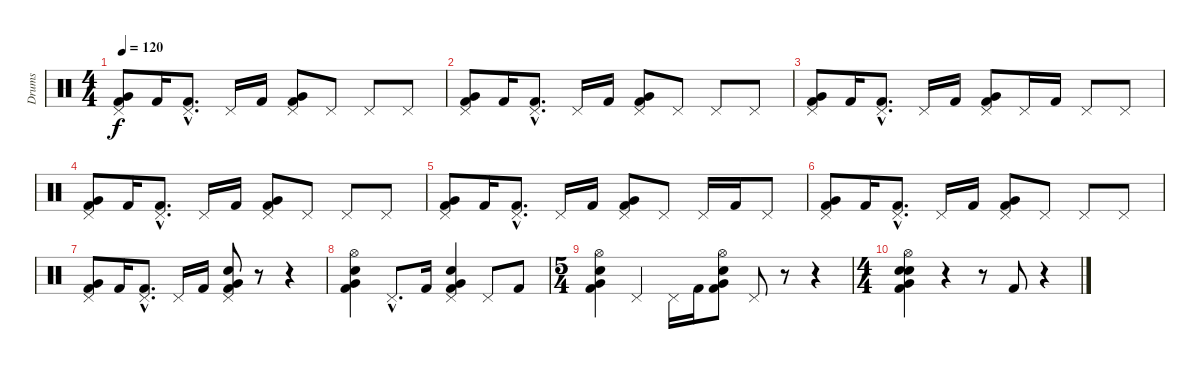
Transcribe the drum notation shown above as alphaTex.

\track ("Drums" "Drums") {instrument percussion}
\staff {score}
\articulation defaults
\ts (4 4)
\tempo 120
\clef neutral
\ks c
("Pedal Hi-Hat (hit)" "Very Low Tom (hit)" "Kick (hit) 2").8{dy f} "Kick (hit) 2".16 ("Pedal Hi-Hat (hit)"{hac} "Kick (hit) 2"{hac}).8{d} "Pedal Hi-Hat (hit)".16 "Kick (hit) 2".16 ("Pedal Hi-Hat (hit)" "Very Low Tom (hit)" "Kick (hit) 2").8 "Pedal Hi-Hat (hit)".8 "Pedal Hi-Hat (hit)".8 "Pedal Hi-Hat (hit)".8 |
("Pedal Hi-Hat (hit)" "Very Low Tom (hit)" "Kick (hit) 2").8 "Kick (hit) 2".16 ("Pedal Hi-Hat (hit)"{hac} "Kick (hit) 2"{hac}).8{d} "Pedal Hi-Hat (hit)".16 "Kick (hit) 2".16 ("Pedal Hi-Hat (hit)" "Very Low Tom (hit)" "Kick (hit) 2").8 "Pedal Hi-Hat (hit)".8 "Pedal Hi-Hat (hit)".8 "Pedal Hi-Hat (hit)".8 |
("Pedal Hi-Hat (hit)" "Very Low Tom (hit)" "Kick (hit) 2").8 "Kick (hit) 2".16 ("Pedal Hi-Hat (hit)"{hac} "Kick (hit) 2"{hac}).8{d} "Pedal Hi-Hat (hit)".16 "Kick (hit) 2".16 ("Pedal Hi-Hat (hit)" "Very Low Tom (hit)" "Kick (hit) 2").8 "Pedal Hi-Hat (hit)".16 "Kick (hit) 2".16 "Pedal Hi-Hat (hit)".8 "Pedal Hi-Hat (hit)".8 |
("Pedal Hi-Hat (hit)" "Very Low Tom (hit)" "Kick (hit) 2").8 "Kick (hit) 2".16 ("Pedal Hi-Hat (hit)"{hac} "Kick (hit) 2"{hac}).8{d} "Pedal Hi-Hat (hit)".16 "Kick (hit) 2".16 ("Pedal Hi-Hat (hit)" "Very Low Tom (hit)" "Kick (hit) 2").8 "Pedal Hi-Hat (hit)".8 "Pedal Hi-Hat (hit)".8 "Pedal Hi-Hat (hit)".8 |
("Pedal Hi-Hat (hit)" "Very Low Tom (hit)" "Kick (hit) 2").8 "Kick (hit) 2".16 ("Pedal Hi-Hat (hit)"{hac} "Kick (hit) 2"{hac}).8{d} "Pedal Hi-Hat (hit)".16 "Kick (hit) 2".16 ("Pedal Hi-Hat (hit)" "Very Low Tom (hit)" "Kick (hit) 2").8 "Pedal Hi-Hat (hit)".8 "Pedal Hi-Hat (hit)".16 "Kick (hit) 2".16 "Pedal Hi-Hat (hit)".8 |
("Pedal Hi-Hat (hit)" "Very Low Tom (hit)" "Kick (hit) 2").8 "Kick (hit) 2".16 ("Pedal Hi-Hat (hit)"{hac} "Kick (hit) 2"{hac}).8{d} "Pedal Hi-Hat (hit)".16 "Kick (hit) 2".16 ("Pedal Hi-Hat (hit)" "Very Low Tom (hit)" "Kick (hit) 2").8 "Pedal Hi-Hat (hit)".8 "Pedal Hi-Hat (hit)".8 "Pedal Hi-Hat (hit)".8 |
("Pedal Hi-Hat (hit)" "Very Low Tom (hit)" "Kick (hit) 2").8 "Kick (hit) 2".16 ("Pedal Hi-Hat (hit)"{hac} "Kick (hit) 2"{hac}).8{d} "Pedal Hi-Hat (hit)".16 "Kick (hit) 2".16 ("Pedal Hi-Hat (hit)" "Electric Snare (hit)" "Very Low Tom (hit)" "Kick (hit) 2").8 r.8 r.4 |
("Hi-Hat (open)" "Very Low Tom (hit)" "Electric Snare (hit)" "Kick (hit) 2").4 "Pedal Hi-Hat (hit)"{hac}.8{d} "Kick (hit) 2".16 ("Pedal Hi-Hat (hit)" "Very Low Tom (hit)" "Electric Snare (hit)" "Kick (hit) 2").4 "Pedal Hi-Hat (hit)".8 "Kick (hit) 2".8 |
\ts (5 4)
("Hi-Hat (open)" "Very Low Tom (hit)" "Electric Snare (hit)" "Kick (hit) 2").4 "Pedal Hi-Hat (hit)".4 "Pedal Hi-Hat (hit)".16 "Kick (hit) 2".16 ("Hi-Hat (open)" "Very Low Tom (hit)" "Electric Snare (hit)" "Kick (hit) 2").8 "Pedal Hi-Hat (hit)".8 r.8 r.4 |
\ts (4 4)
("Hi-Hat (open)" "Very Low Tom (hit)" "Electric Snare (hit)" "Electric Snare (hit)" "Kick (hit) 2").4 r.4 r.8 "Kick (hit) 2".8 r.4
